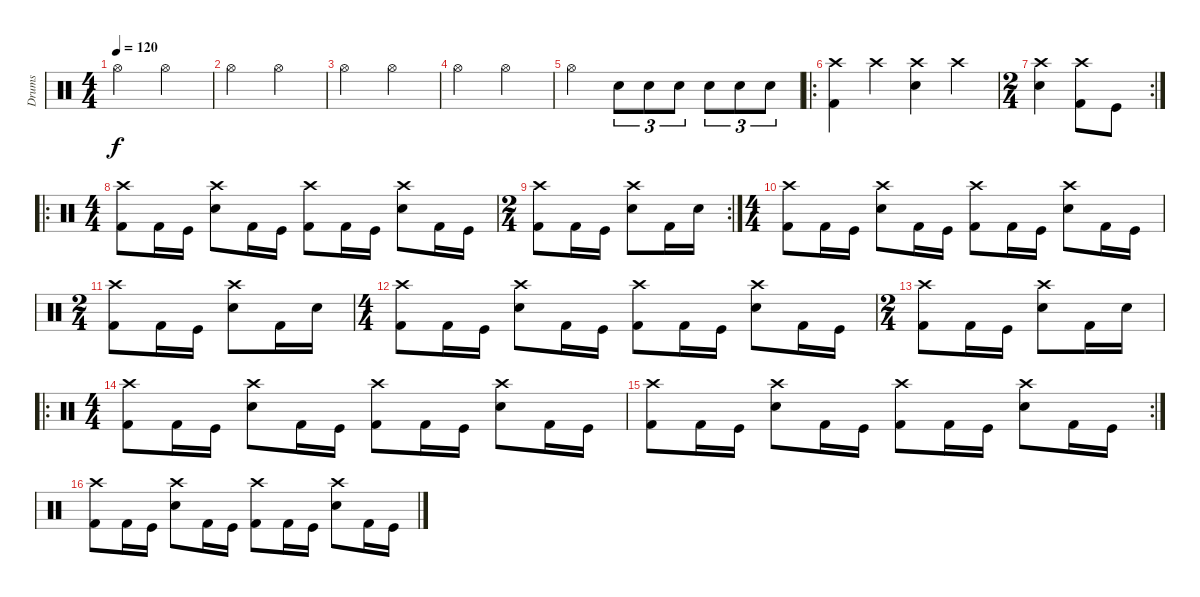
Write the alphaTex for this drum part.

\track ("Drums" "Drums") {instrument percussion}
\staff {score}
\articulation defaults
\ts (4 4)
\tempo 120
\clef neutral
\ks c "Hi-Hat (open)".2{dy f} "Hi-Hat (open)".2
|
"Hi-Hat (open)".2 "Hi-Hat (open)".2 |
"Hi-Hat (open)".2 "Hi-Hat (open)".2 |
"Hi-Hat (open)".2 "Hi-Hat (open)".2 |
"Hi-Hat (open)".2 "Snare (hit) 2".8{tu (3 2)} "Snare (hit) 2".8{tu (3 2)} "Snare (hit) 2".8{tu (3 2)} "Snare (hit) 2".8{tu (3 2)} "Snare (hit) 2".8{tu (3 2)} "Snare (hit) 2".8{tu (3 2)} |
\ro
("Crash high (hit)" "Kick (hit) 2").4 "Crash high (hit)".4 ("Crash high (hit)" "Snare (hit) 2").4 "Crash high (hit)".4 |
\rc 2
\ts (2 4)
("Crash high (hit)" "Snare (hit) 2").4 ("Crash high (hit)" "Kick (hit) 2").8 "Kick (hit)".8 |
\ro
\ts (4 4)
("Crash high (hit)" "Kick (hit) 2").8 "Kick (hit) 2".16 "Kick (hit)".16 ("Crash high (hit)" "Snare (hit) 2").8 "Kick (hit) 2".16 "Kick (hit)".16 ("Crash high (hit)" "Kick (hit) 2").8 "Kick (hit) 2".16 "Kick (hit)".16 ("Crash high (hit)" "Snare (hit) 2").8 "Kick (hit) 2".16 "Kick (hit)".16 |
\rc 2
\ts (2 4)
("Crash high (hit)" "Kick (hit) 2").8 "Kick (hit) 2".16 "Kick (hit)".16 ("Crash high (hit)" "Snare (hit) 2").8 "Kick (hit) 2".16 "Snare (hit) 2".16 |
\ts (4 4)
("Crash high (hit)" "Kick (hit) 2").8 "Kick (hit) 2".16 "Kick (hit)".16 ("Crash high (hit)" "Snare (hit) 2").8 "Kick (hit) 2".16 "Kick (hit)".16 ("Crash high (hit)" "Kick (hit) 2").8 "Kick (hit) 2".16 "Kick (hit)".16 ("Crash high (hit)" "Snare (hit) 2").8 "Kick (hit) 2".16 "Kick (hit)".16 |
\ts (2 4)
("Crash high (hit)" "Kick (hit) 2").8 "Kick (hit) 2".16 "Kick (hit)".16 ("Crash high (hit)" "Snare (hit) 2").8 "Kick (hit) 2".16 "Snare (hit) 2".16 |
\ts (4 4)
("Crash high (hit)" "Kick (hit) 2").8 "Kick (hit) 2".16 "Kick (hit)".16 ("Crash high (hit)" "Snare (hit) 2").8 "Kick (hit) 2".16 "Kick (hit)".16 ("Crash high (hit)" "Kick (hit) 2").8 "Kick (hit) 2".16 "Kick (hit)".16 ("Crash high (hit)" "Snare (hit) 2").8 "Kick (hit) 2".16 "Kick (hit)".16 |
\ts (2 4)
("Crash high (hit)" "Kick (hit) 2").8 "Kick (hit) 2".16 "Kick (hit)".16 ("Crash high (hit)" "Snare (hit) 2").8 "Kick (hit) 2".16 "Snare (hit) 2".16 |
\ro
\ts (4 4)
("Crash high (hit)" "Kick (hit) 2").8 "Kick (hit) 2".16 "Kick (hit)".16 ("Crash high (hit)" "Snare (hit) 2").8 "Kick (hit) 2".16 "Kick (hit)".16 ("Crash high (hit)" "Kick (hit) 2").8 "Kick (hit) 2".16 "Kick (hit)".16 ("Crash high (hit)" "Snare (hit) 2").8 "Kick (hit) 2".16 "Kick (hit)".16 |
\rc 2
("Crash high (hit)" "Kick (hit) 2").8 "Kick (hit) 2".16 "Kick (hit)".16 ("Crash high (hit)" "Snare (hit) 2").8 "Kick (hit) 2".16 "Kick (hit)".16 ("Crash high (hit)" "Kick (hit) 2").8 "Kick (hit) 2".16 "Kick (hit)".16 ("Crash high (hit)" "Snare (hit) 2").8 "Kick (hit) 2".16 "Kick (hit)".16 |
("Crash high (hit)" "Kick (hit) 2").8 "Kick (hit) 2".16 "Kick (hit)".16 ("Crash high (hit)" "Snare (hit) 2").8 "Kick (hit) 2".16 "Kick (hit)".16 ("Crash high (hit)" "Kick (hit) 2").8 "Kick (hit) 2".16 "Kick (hit)".16 ("Crash high (hit)" "Snare (hit) 2").8 "Kick (hit) 2".16 "Kick (hit)".16
